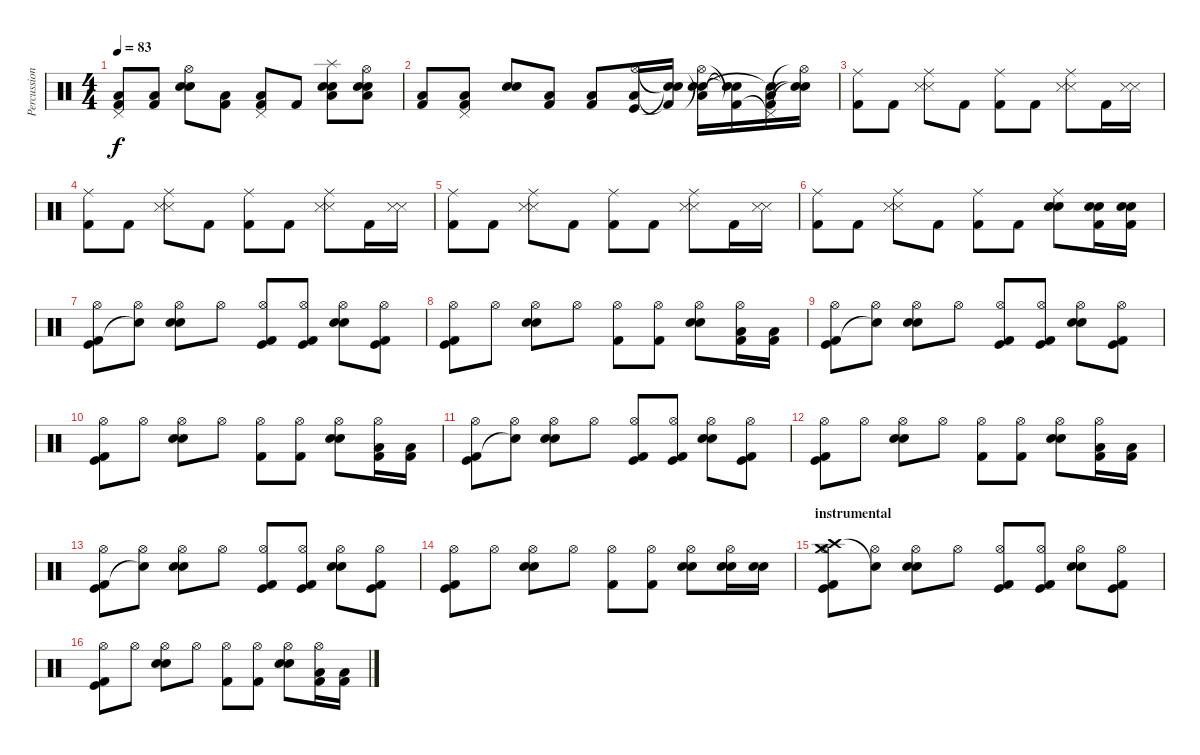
\track ("Percussions" "Percussion") {instrument percussion}
\staff {score}
\articulation defaults
\ts (4 4)
\tempo 83
\clef neutral
\ks c
("Low Tom (hit)" "Pedal Hi-Hat (hit)" "Kick (hit) 2").8{dy f} ("Low Floor Tom (hit)" "Kick (hit) 2").8 ("Hi-Hat (open)" "Electric Snare (hit)" "Snare (hit) 2").8 ("Low Tom (hit)" "Kick (hit) 2").8 ("Low Floor Tom (hit)" "Pedal Hi-Hat (hit)" "Kick (hit) 2").8 "Kick (hit) 2".8 ("Low Tom (hit)" "Splash (hit)" "Electric Snare (hit)" "Snare (hit) 2").8 ("Low Tom (hit)" "Hi-Hat (open)" "Electric Snare (hit)" "Snare (hit) 2").8 |
("Low Floor Tom (hit)" "Kick (hit) 2").8 ("Low Tom (hit)" "Pedal Hi-Hat (hit)" "Kick (hit) 2").8 ("Electric Snare (hit)" "Snare (hit) 2").8 ("Low Tom (hit)" "Kick (hit) 2").8 ("Low Floor Tom (hit)" "Kick (hit) 2").8 ("Hi-Hat (open)" "Low Floor Tom (hit)" "Kick (hit)").16 ("Snare (hit)"{t} "Kick (hit) 2"{t} "Snare (hit)"{t}).16 ("Low Tom (hit)" "Hi-Hat (open)"{t} "Electric Snare (hit)" "Snare (hit) 2").16 ("Snare (hit)"{t} "Kick (hit) 2"{t} "Snare (hit)"{t}).16 ("Low Tom (hit)" "Pedal Hi-Hat (hit)"{t} "Kick (hit) 2" "Snare (hit)"{t}).16 ("Hi-Hat (open)"{t} "Electric Snare (hit)"{t} "Snare (hit) 2"{t}).16 |
("Ride (middle)" "Kick (hit) 2").8 "Kick (hit) 2".8 ("Ride (middle)" "Metronome (hit)" "Snare (side stick) 3").8 "Kick (hit) 2".8 ("Ride (middle)" "Kick (hit) 2").8 "Kick (hit) 2".8 ("Ride (middle)" "Metronome (hit)" "Snare (side stick) 3").8 "Kick (hit) 2".16 ("Metronome (hit)" "Snare (side stick) 3").16 |
("Ride (middle)" "Kick (hit) 2").8 "Kick (hit) 2".8 ("Ride (middle)" "Metronome (hit)" "Snare (side stick) 3").8 "Kick (hit) 2".8 ("Ride (middle)" "Kick (hit) 2").8 "Kick (hit) 2".8 ("Ride (middle)" "Metronome (hit)" "Snare (side stick) 3").8 "Kick (hit) 2".16 ("Metronome (hit)" "Snare (side stick) 3").16 |
("Ride (middle)" "Kick (hit) 2").8 "Kick (hit) 2".8 ("Ride (middle)" "Metronome (hit)" "Snare (side stick) 3").8 "Kick (hit) 2".8 ("Ride (middle)" "Kick (hit) 2").8 "Kick (hit) 2".8 ("Ride (middle)" "Metronome (hit)" "Snare (side stick) 3").8 "Kick (hit) 2".16 ("Metronome (hit)" "Snare (side stick) 3").16 |
("Ride (middle)" "Kick (hit) 2").8 "Kick (hit) 2".8 ("Ride (middle)" "Metronome (hit)" "Snare (side stick) 3").8 "Kick (hit) 2".8 ("Ride (middle)" "Kick (hit) 2").8 "Kick (hit) 2".8 ("Ride (middle)" "Electric Snare (hit)" "Snare (hit) 2").8 ("Electric Snare (hit)" "Snare (hit) 2" "Kick (hit) 2").16 ("Electric Snare (hit)" "Snare (hit) 2" "Kick (hit) 2").16 |
("Hi-Hat (open)" "Kick (hit) 2" "Kick (hit)").8 ("Hi-Hat (open)" "Electric Snare (hit)"{t}).8 ("Hi-Hat (open)" "Electric Snare (hit)" "Snare (hit) 2").8 "Hi-Hat (open)".8 ("Hi-Hat (open)" "Kick (hit) 2" "Kick (hit)").8 ("Hi-Hat (open)" "Kick (hit) 2" "Kick (hit)").8 ("Hi-Hat (open)" "Electric Snare (hit)" "Snare (hit) 2").8 ("Hi-Hat (open)" "Kick (hit) 2" "Kick (hit)").8 |
("Hi-Hat (open)" "Kick (hit) 2" "Kick (hit)").8 "Hi-Hat (open)".8 ("Hi-Hat (open)" "Electric Snare (hit)" "Snare (hit) 2").8 "Hi-Hat (open)".8 ("Hi-Hat (open)" "Kick (hit) 2").8 ("Hi-Hat (open)" "Kick (hit) 2").8 ("Hi-Hat (open)" "Electric Snare (hit)" "Snare (hit) 2").8 ("Hi-Hat (open)" "Low Tom (hit)" "Kick (hit) 2").16 ("Low Floor Tom (hit)" "Kick (hit) 2").16 |
("Hi-Hat (open)" "Kick (hit) 2" "Kick (hit)").8 ("Hi-Hat (open)" "Electric Snare (hit)"{t}).8 ("Hi-Hat (open)" "Electric Snare (hit)" "Snare (hit) 2").8 "Hi-Hat (open)".8 ("Hi-Hat (open)" "Kick (hit) 2" "Kick (hit)").8 ("Hi-Hat (open)" "Kick (hit) 2" "Kick (hit)").8 ("Hi-Hat (open)" "Electric Snare (hit)" "Snare (hit) 2").8 ("Hi-Hat (open)" "Kick (hit) 2" "Kick (hit)").8 |
("Hi-Hat (open)" "Kick (hit) 2" "Kick (hit)").8 "Hi-Hat (open)".8 ("Hi-Hat (open)" "Electric Snare (hit)" "Snare (hit) 2").8 "Hi-Hat (open)".8 ("Hi-Hat (open)" "Kick (hit) 2").8 ("Hi-Hat (open)" "Kick (hit) 2").8 ("Hi-Hat (open)" "Electric Snare (hit)" "Snare (hit) 2").8 ("Hi-Hat (open)" "Low Tom (hit)" "Kick (hit) 2").16 ("Low Floor Tom (hit)" "Kick (hit) 2").16 |
("Hi-Hat (open)" "Kick (hit) 2" "Kick (hit)").8 ("Hi-Hat (open)" "Electric Snare (hit)"{t}).8 ("Hi-Hat (open)" "Electric Snare (hit)" "Snare (hit) 2").8 "Hi-Hat (open)".8 ("Hi-Hat (open)" "Kick (hit) 2" "Kick (hit)").8 ("Hi-Hat (open)" "Kick (hit) 2" "Kick (hit)").8 ("Hi-Hat (open)" "Electric Snare (hit)" "Snare (hit) 2").8 ("Hi-Hat (open)" "Kick (hit) 2" "Kick (hit)").8 |
("Hi-Hat (open)" "Kick (hit) 2" "Kick (hit)").8 "Hi-Hat (open)".8 ("Hi-Hat (open)" "Electric Snare (hit)" "Snare (hit) 2").8 "Hi-Hat (open)".8 ("Hi-Hat (open)" "Kick (hit) 2").8 ("Hi-Hat (open)" "Kick (hit) 2").8 ("Hi-Hat (open)" "Electric Snare (hit)" "Snare (hit) 2").8 ("Hi-Hat (open)" "Low Tom (hit)" "Kick (hit) 2").16 ("Low Floor Tom (hit)" "Kick (hit) 2").16 |
("Hi-Hat (open)" "Kick (hit) 2" "Kick (hit)").8 ("Hi-Hat (open)" "Electric Snare (hit)"{t}).8 ("Hi-Hat (open)" "Electric Snare (hit)" "Snare (hit) 2").8 "Hi-Hat (open)".8 ("Hi-Hat (open)" "Kick (hit) 2" "Kick (hit)").8 ("Hi-Hat (open)" "Kick (hit) 2" "Kick (hit)").8 ("Hi-Hat (open)" "Electric Snare (hit)" "Snare (hit) 2").8 ("Hi-Hat (open)" "Kick (hit) 2" "Kick (hit)").8 |
("Hi-Hat (open)" "Kick (hit) 2" "Kick (hit)").8 "Hi-Hat (open)".8 ("Hi-Hat (open)" "Electric Snare (hit)" "Snare (hit) 2").8 "Hi-Hat (open)".8 ("Hi-Hat (open)" "Kick (hit) 2").8 ("Hi-Hat (open)" "Kick (hit) 2").8 ("Hi-Hat (open)" "Electric Snare (hit)" "Snare (hit) 2").8 ("Hi-Hat (open)" "Electric Snare (hit)" "Snare (hit) 2").16 ("Electric Snare (hit)" "Snare (hit) 2").16 |
\section ("" "instrumental")
("Hi-Hat (open)" "Crash high (hit)" "Kick (hit) 2" "Kick (hit)" "Crash medium (hit)").8 ("Hi-Hat (open)" "Electric Snare (hit)"{t}).8 ("Hi-Hat (open)" "Electric Snare (hit)" "Snare (hit) 2").8 "Hi-Hat (open)".8 ("Hi-Hat (open)" "Kick (hit) 2" "Kick (hit)").8 ("Hi-Hat (open)" "Kick (hit) 2" "Kick (hit)").8 ("Hi-Hat (open)" "Electric Snare (hit)" "Snare (hit) 2").8 ("Hi-Hat (open)" "Kick (hit) 2" "Kick (hit)").8 |
("Hi-Hat (open)" "Kick (hit) 2" "Kick (hit)").8 "Hi-Hat (open)".8 ("Hi-Hat (open)" "Electric Snare (hit)" "Snare (hit) 2").8 "Hi-Hat (open)".8 ("Hi-Hat (open)" "Kick (hit) 2").8 ("Hi-Hat (open)" "Kick (hit) 2").8 ("Hi-Hat (open)" "Electric Snare (hit)" "Snare (hit) 2").8 ("Hi-Hat (open)" "Low Tom (hit)" "Kick (hit) 2").16 ("Low Floor Tom (hit)" "Kick (hit) 2").16
